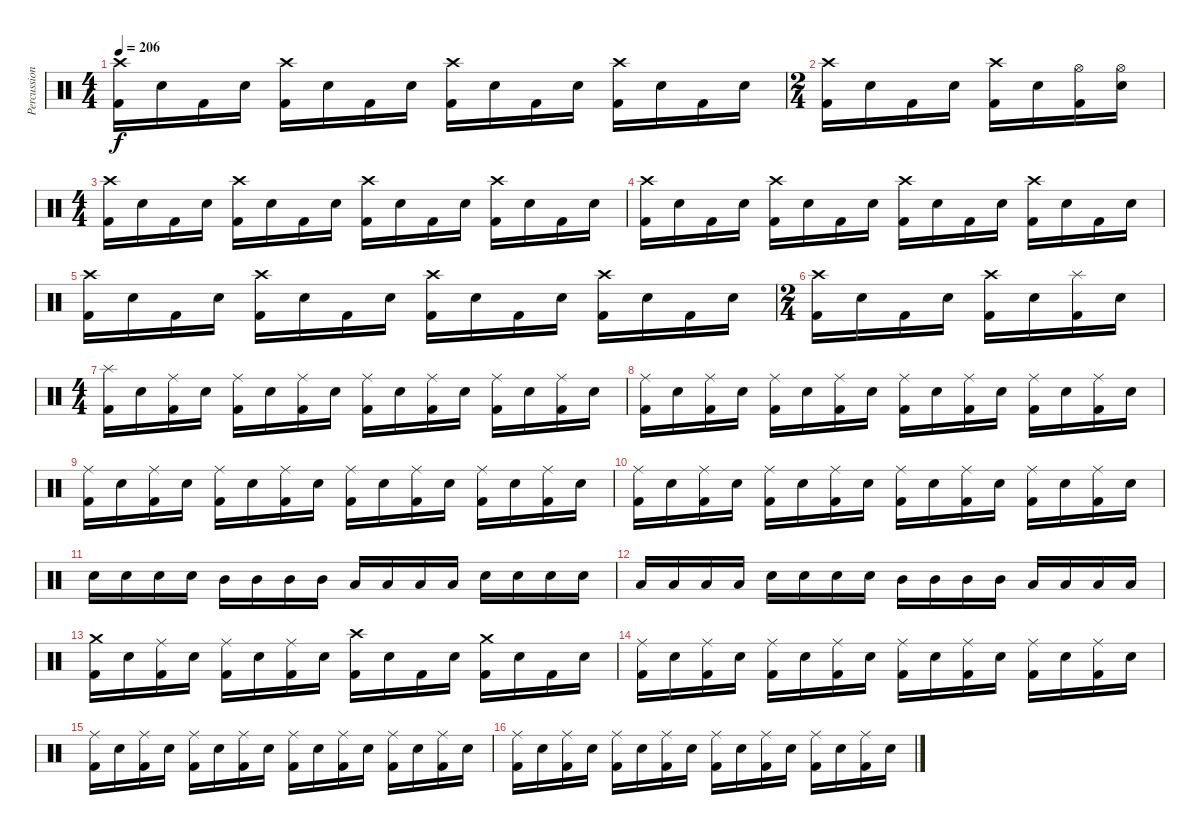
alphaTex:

\track ("Percussion" "Percussion") {instrument percussion}
\staff {score}
\articulation defaults
\ts (4 4)
\tempo 206
\clef neutral
\ks c
("Crash high (hit)" "Kick (hit) 2").16{dy f} "Electric Snare (hit)".16 "Kick (hit) 2".16 "Electric Snare (hit)".16 ("Crash high (hit)" "Kick (hit) 2").16 "Electric Snare (hit)".16 "Kick (hit) 2".16 "Electric Snare (hit)".16 ("Crash high (hit)" "Kick (hit) 2").16 "Electric Snare (hit)".16 "Kick (hit) 2".16 "Electric Snare (hit)".16 ("Crash high (hit)" "Kick (hit) 2").16 "Electric Snare (hit)".16 "Kick (hit) 2".16 "Electric Snare (hit)".16 |
\ts (2 4)
("Crash high (hit)" "Kick (hit) 2").16 "Electric Snare (hit)".16 "Kick (hit) 2".16 "Electric Snare (hit)".16 ("Crash high (hit)" "Kick (hit) 2").16 "Electric Snare (hit)".16 ("Hi-Hat (open)" "Kick (hit) 2").16 ("Hi-Hat (open)" "Electric Snare (hit)").16 |
\ts (4 4)
("Crash high (hit)" "Kick (hit) 2").16 "Electric Snare (hit)".16 "Kick (hit) 2".16 "Electric Snare (hit)".16 ("Crash high (hit)" "Kick (hit) 2").16 "Electric Snare (hit)".16 "Kick (hit) 2".16 "Electric Snare (hit)".16 ("Crash high (hit)" "Kick (hit) 2").16 "Electric Snare (hit)".16 "Kick (hit) 2".16 "Electric Snare (hit)".16 ("Crash high (hit)" "Kick (hit) 2").16 "Electric Snare (hit)".16 "Kick (hit) 2".16 "Electric Snare (hit)".16 |
("Crash high (hit)" "Kick (hit) 2").16 "Electric Snare (hit)".16 "Kick (hit) 2".16 "Electric Snare (hit)".16 ("Crash high (hit)" "Kick (hit) 2").16 "Electric Snare (hit)".16 "Kick (hit) 2".16 "Electric Snare (hit)".16 ("Crash high (hit)" "Kick (hit) 2").16 "Electric Snare (hit)".16 "Kick (hit) 2".16 "Electric Snare (hit)".16 ("Crash high (hit)" "Kick (hit) 2").16 "Electric Snare (hit)".16 "Kick (hit) 2".16 "Electric Snare (hit)".16 |
("Crash high (hit)" "Kick (hit) 2").16 "Electric Snare (hit)".16 "Kick (hit) 2".16 "Electric Snare (hit)".16 ("Crash high (hit)" "Kick (hit) 2").16 "Electric Snare (hit)".16 "Kick (hit) 2".16 "Electric Snare (hit)".16 ("Crash high (hit)" "Kick (hit) 2").16 "Electric Snare (hit)".16 "Kick (hit) 2".16 "Electric Snare (hit)".16 ("Crash high (hit)" "Kick (hit) 2").16 "Electric Snare (hit)".16 "Kick (hit) 2".16 "Electric Snare (hit)".16 |
\ts (2 4)
("Crash high (hit)" "Kick (hit) 2").16 "Electric Snare (hit)".16 "Kick (hit) 2".16 "Electric Snare (hit)".16 ("Crash high (hit)" "Kick (hit) 2").16 "Electric Snare (hit)".16 ("Splash (hit)" "Kick (hit) 2").16 "Electric Snare (hit)".16 |
\ts (4 4)
("Splash (hit)" "Kick (hit) 2").16 "Electric Snare (hit)".16 ("Ride (middle)" "Kick (hit) 2").16 "Electric Snare (hit)".16 ("Ride (middle)" "Kick (hit) 2").16 "Electric Snare (hit)".16 ("Ride (middle)" "Kick (hit) 2").16 "Electric Snare (hit)".16 ("Ride (middle)" "Kick (hit) 2").16 "Electric Snare (hit)".16 ("Ride (middle)" "Kick (hit) 2").16 "Electric Snare (hit)".16 ("Ride (middle)" "Kick (hit) 2").16 "Electric Snare (hit)".16 ("Ride (middle)" "Kick (hit) 2").16 "Electric Snare (hit)".16 |
("Ride (middle)" "Kick (hit) 2").16 "Electric Snare (hit)".16 ("Ride (middle)" "Kick (hit) 2").16 "Electric Snare (hit)".16 ("Ride (middle)" "Kick (hit) 2").16 "Electric Snare (hit)".16 ("Ride (middle)" "Kick (hit) 2").16 "Electric Snare (hit)".16 ("Ride (middle)" "Kick (hit) 2").16 "Electric Snare (hit)".16 ("Ride (middle)" "Kick (hit) 2").16 "Electric Snare (hit)".16 ("Ride (middle)" "Kick (hit) 2").16 "Electric Snare (hit)".16 ("Ride (middle)" "Kick (hit) 2").16 "Electric Snare (hit)".16 |
("Ride (middle)" "Kick (hit) 2").16 "Electric Snare (hit)".16 ("Ride (middle)" "Kick (hit) 2").16 "Electric Snare (hit)".16 ("Ride (middle)" "Kick (hit) 2").16 "Electric Snare (hit)".16 ("Ride (middle)" "Kick (hit) 2").16 "Electric Snare (hit)".16 ("Ride (middle)" "Kick (hit) 2").16 "Electric Snare (hit)".16 ("Ride (middle)" "Kick (hit) 2").16 "Electric Snare (hit)".16 ("Ride (middle)" "Kick (hit) 2").16 "Electric Snare (hit)".16 ("Ride (middle)" "Kick (hit) 2").16 "Electric Snare (hit)".16 |
("Ride (middle)" "Kick (hit) 2").16 "Electric Snare (hit)".16 ("Ride (middle)" "Kick (hit) 2").16 "Electric Snare (hit)".16 ("Ride (middle)" "Kick (hit) 2").16 "Electric Snare (hit)".16 ("Ride (middle)" "Kick (hit) 2").16 "Electric Snare (hit)".16 ("Ride (middle)" "Kick (hit) 2").16 "Electric Snare (hit)".16 ("Ride (middle)" "Kick (hit) 2").16 "Electric Snare (hit)".16 ("Ride (middle)" "Kick (hit) 2").16 "Electric Snare (hit)".16 ("Ride (middle)" "Kick (hit) 2").16 "Electric Snare (hit)".16 |
"Electric Snare (hit)".16 "Electric Snare (hit)".16 "Electric Snare (hit)".16 "Electric Snare (hit)".16 "Mid Tom (hit)".16 "Mid Tom (hit)".16 "Mid Tom (hit)".16 "Mid Tom (hit)".16 "Low Tom (hit)".16 "Low Tom (hit)".16 "Low Tom (hit)".16 "Low Tom (hit)".16 "Electric Snare (hit)".16 "Electric Snare (hit)".16 "Electric Snare (hit)".16 "Electric Snare (hit)".16 |
"Low Tom (hit)".16 "Low Tom (hit)".16 "Low Tom (hit)".16 "Low Tom (hit)".16 "Electric Snare (hit)".16 "Electric Snare (hit)".16 "Electric Snare (hit)".16 "Electric Snare (hit)".16 "Mid Tom (hit)".16 "Mid Tom (hit)".16 "Mid Tom (hit)".16 "Mid Tom (hit)".16 "Low Tom (hit)".16 "Low Tom (hit)".16 "Low Tom (hit)".16 "Low Tom (hit)".16 |
("Crash medium (hit)" "Kick (hit) 2").16 "Electric Snare (hit)".16 ("Ride (middle)" "Kick (hit) 2").16 "Electric Snare (hit)".16 ("Ride (middle)" "Kick (hit) 2").16 "Electric Snare (hit)".16 ("Ride (middle)" "Kick (hit) 2").16 "Electric Snare (hit)".16 ("Crash high (hit)" "Kick (hit) 2").16 "Electric Snare (hit)".16 "Kick (hit) 2".16 "Electric Snare (hit)".16 ("Crash medium (hit)" "Kick (hit) 2").16 "Electric Snare (hit)".16 "Kick (hit) 2".16 "Electric Snare (hit)".16 |
("Ride (middle)" "Kick (hit) 2").16 "Electric Snare (hit)".16 ("Ride (middle)" "Kick (hit) 2").16 "Electric Snare (hit)".16 ("Ride (middle)" "Kick (hit) 2").16 "Electric Snare (hit)".16 ("Ride (middle)" "Kick (hit) 2").16 "Electric Snare (hit)".16 ("Ride (middle)" "Kick (hit) 2").16 "Electric Snare (hit)".16 ("Ride (middle)" "Kick (hit) 2").16 "Electric Snare (hit)".16 ("Ride (middle)" "Kick (hit) 2").16 "Electric Snare (hit)".16 ("Ride (middle)" "Kick (hit) 2").16 "Electric Snare (hit)".16 |
("Ride (middle)" "Kick (hit) 2").16 "Electric Snare (hit)".16 ("Ride (middle)" "Kick (hit) 2").16 "Electric Snare (hit)".16 ("Ride (middle)" "Kick (hit) 2").16 "Electric Snare (hit)".16 ("Ride (middle)" "Kick (hit) 2").16 "Electric Snare (hit)".16 ("Ride (middle)" "Kick (hit) 2").16 "Electric Snare (hit)".16 ("Ride (middle)" "Kick (hit) 2").16 "Electric Snare (hit)".16 ("Ride (middle)" "Kick (hit) 2").16 "Electric Snare (hit)".16 ("Ride (middle)" "Kick (hit) 2").16 "Electric Snare (hit)".16 |
("Ride (middle)" "Kick (hit) 2").16 "Electric Snare (hit)".16 ("Ride (middle)" "Kick (hit) 2").16 "Electric Snare (hit)".16 ("Ride (middle)" "Kick (hit) 2").16 "Electric Snare (hit)".16 ("Ride (middle)" "Kick (hit) 2").16 "Electric Snare (hit)".16 ("Ride (middle)" "Kick (hit) 2").16 "Electric Snare (hit)".16 ("Ride (middle)" "Kick (hit) 2").16 "Electric Snare (hit)".16 ("Ride (middle)" "Kick (hit) 2").16 "Electric Snare (hit)".16 ("Ride (middle)" "Kick (hit) 2").16 "Electric Snare (hit)".16
